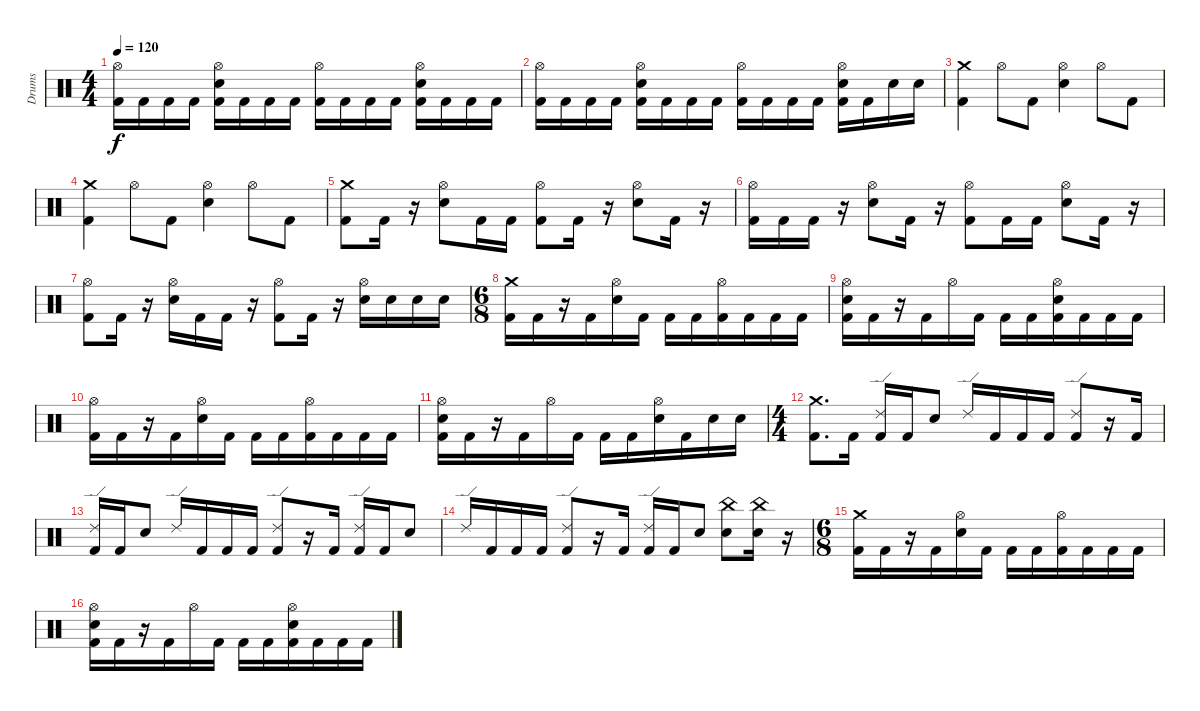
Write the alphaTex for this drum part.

\track ("Drums" "Drums") {instrument percussion}
\staff {score}
\articulation defaults
\ts (4 4)
\tempo 120
\clef neutral
\ks c
("Hi-Hat (open)" "Kick (hit) 2").16{dy f} "Kick (hit) 2".16 "Kick (hit) 2".16 "Kick (hit) 2".16 ("Hi-Hat (open)" "Electric Snare (hit)" "Kick (hit) 2").16 "Kick (hit) 2".16 "Kick (hit) 2".16 "Kick (hit) 2".16 ("Hi-Hat (open)" "Kick (hit) 2").16 "Kick (hit) 2".16 "Kick (hit) 2".16 "Kick (hit) 2".16 ("Hi-Hat (open)" "Electric Snare (hit)" "Kick (hit) 2").16 "Kick (hit) 2".16 "Kick (hit) 2".16 "Kick (hit) 2".16 |
("Hi-Hat (open)" "Kick (hit) 2").16 "Kick (hit) 2".16 "Kick (hit) 2".16 "Kick (hit) 2".16 ("Hi-Hat (open)" "Electric Snare (hit)" "Kick (hit) 2").16 "Kick (hit) 2".16 "Kick (hit) 2".16 "Kick (hit) 2".16 ("Hi-Hat (open)" "Kick (hit) 2").16 "Kick (hit) 2".16 "Kick (hit) 2".16 "Kick (hit) 2".16 ("Hi-Hat (open)" "Electric Snare (hit)" "Kick (hit) 2").16 "Kick (hit) 2".16 "Electric Snare (hit)".16 "Electric Snare (hit)".16 |
("Crash medium (hit)" "Kick (hit) 2").4 "Hi-Hat (open)".8 "Kick (hit) 2".8 ("Hi-Hat (open)" "Electric Snare (hit)").4 "Hi-Hat (open)".8 "Kick (hit) 2".8 |
("Crash medium (hit)" "Kick (hit) 2").4 "Hi-Hat (open)".8 "Kick (hit) 2".8 ("Hi-Hat (open)" "Electric Snare (hit)").4 "Hi-Hat (open)".8 "Kick (hit) 2".8 |
("Crash medium (hit)" "Kick (hit) 2").8 "Kick (hit) 2".16 r.16 ("Hi-Hat (open)" "Electric Snare (hit)").8 "Kick (hit) 2".16 "Kick (hit) 2".16 ("Kick (hit) 2" "Hi-Hat (open)").8 "Kick (hit) 2".16 r.16 ("Hi-Hat (open)" "Electric Snare (hit)").8 "Kick (hit) 2".16 r.16 |
("Hi-Hat (open)" "Kick (hit) 2").16 "Kick (hit) 2".16 "Kick (hit) 2".16 r.16 ("Hi-Hat (open)" "Electric Snare (hit)").8 "Kick (hit) 2".16 r.16 ("Hi-Hat (open)" "Kick (hit) 2").8 "Kick (hit) 2".16 "Kick (hit) 2".16 ("Hi-Hat (open)" "Electric Snare (hit)").8 "Kick (hit) 2".16 r.16 |
("Hi-Hat (open)" "Kick (hit) 2").8 "Kick (hit) 2".16 r.16 ("Hi-Hat (open)" "Electric Snare (hit)").16 "Kick (hit) 2".16 "Kick (hit) 2".16 r.16 ("Hi-Hat (open)" "Kick (hit) 2").8 "Kick (hit) 2".16 r.16 ("Hi-Hat (open)" "Electric Snare (hit)").16 "Electric Snare (hit)".16 "Electric Snare (hit)".16 "Electric Snare (hit)".16 |
\ts (6 8)
("Crash medium (hit)" "Kick (hit) 2").16 "Kick (hit) 2".16 r.16 "Kick (hit) 2".16 ("Electric Snare (hit)" "Hi-Hat (open)").16 "Kick (hit) 2".16 "Kick (hit) 2".16 "Kick (hit) 2".16 ("Hi-Hat (open)" "Kick (hit) 2").16 "Kick (hit) 2".16 "Kick (hit) 2".16 "Kick (hit) 2".16 |
("Electric Snare (hit)" "Hi-Hat (open)" "Kick (hit) 2").16 "Kick (hit) 2".16 r.16 "Kick (hit) 2".16 "Hi-Hat (open)".16 "Kick (hit) 2".16 "Kick (hit) 2".16 "Kick (hit) 2".16 ("Electric Snare (hit)" "Hi-Hat (open)" "Kick (hit) 2").16 "Kick (hit) 2".16 "Kick (hit) 2".16 "Kick (hit) 2".16 |
("Hi-Hat (open)" "Kick (hit) 2").16 "Kick (hit) 2".16 r.16 "Kick (hit) 2".16 ("Electric Snare (hit)" "Hi-Hat (open)").16 "Kick (hit) 2".16 "Kick (hit) 2".16 "Kick (hit) 2".16 ("Hi-Hat (open)" "Kick (hit) 2").16 "Kick (hit) 2".16 "Kick (hit) 2".16 "Kick (hit) 2".16 |
("Electric Snare (hit)" "Hi-Hat (open)" "Kick (hit) 2").16 "Kick (hit) 2".16 r.16 "Kick (hit) 2".16 "Hi-Hat (open)".16 "Kick (hit) 2".16 "Kick (hit) 2".16 "Kick (hit) 2".16 ("Electric Snare (hit)" "Hi-Hat (open)").16 "Kick (hit) 2".16 "Electric Snare (hit)".16 "Electric Snare (hit)".16 |
\ts (4 4)
("Crash medium (hit)" "Kick (hit) 2").8{d} "Kick (hit) 2".16 ("Ride (edge) 2" "Kick (hit) 2").16 "Kick (hit) 2".16 "Electric Snare (hit)".8 "Ride (edge) 2".16 "Kick (hit) 2".16 "Kick (hit) 2".16 "Kick (hit) 2".16 ("Ride (edge) 2" "Kick (hit) 2").8 r.16 "Kick (hit) 2".16 |
("Ride (edge) 2" "Kick (hit) 2").16 "Kick (hit) 2".16 "Electric Snare (hit)".8 "Ride (edge) 2".16 "Kick (hit) 2".16 "Kick (hit) 2".16 "Kick (hit) 2".16 ("Ride (edge) 2" "Kick (hit) 2").8 r.16 "Kick (hit) 2".16 ("Ride (edge) 2" "Kick (hit) 2").16 "Kick (hit) 2".16 "Electric Snare (hit)".8 |
"Ride (edge) 2".16 "Kick (hit) 2".16 "Kick (hit) 2".16 "Kick (hit) 2".16 ("Ride (edge) 2" "Kick (hit) 2").8 r.16 "Kick (hit) 2".16 ("Ride (edge) 2" "Kick (hit) 2").16 "Kick (hit) 2".16 "Electric Snare (hit)".8 ("Electric Snare (hit)" "China (hit)").8 ("Electric Snare (hit)" "China (hit)").16 r.16 |
\ts (6 8)
("Crash medium (hit)" "Kick (hit) 2").16 "Kick (hit) 2".16 r.16 "Kick (hit) 2".16 ("Electric Snare (hit)" "Hi-Hat (open)").16 "Kick (hit) 2".16 "Kick (hit) 2".16 "Kick (hit) 2".16 ("Hi-Hat (open)" "Kick (hit) 2").16 "Kick (hit) 2".16 "Kick (hit) 2".16 "Kick (hit) 2".16 |
("Electric Snare (hit)" "Hi-Hat (open)" "Kick (hit) 2").16 "Kick (hit) 2".16 r.16 "Kick (hit) 2".16 "Hi-Hat (open)".16 "Kick (hit) 2".16 "Kick (hit) 2".16 "Kick (hit) 2".16 ("Electric Snare (hit)" "Hi-Hat (open)" "Kick (hit) 2").16 "Kick (hit) 2".16 "Kick (hit) 2".16 "Kick (hit) 2".16
